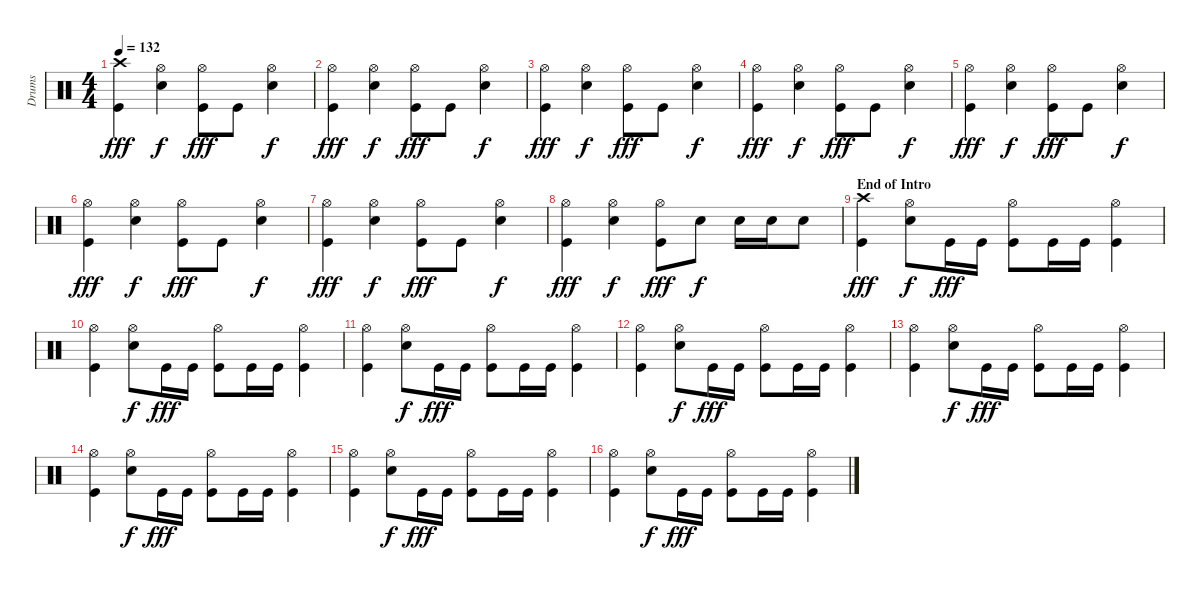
\track ("Drums" "Drums") {instrument percussion}
\staff {score}
\articulation defaults
\ts (4 4)
\tempo 132
\clef neutral
\ks c
("Crash high (hit)" "Kick (hit)").4{dy fff} ("Hi-Hat (open)" "Snare (hit) 2").4{dy f} ("Hi-Hat (open)" "Kick (hit)").8{dy fff} "Kick (hit)".8 ("Hi-Hat (open)" "Snare (hit) 2").4{dy f} |
("Hi-Hat (open)" "Kick (hit)").4{dy fff} ("Hi-Hat (open)" "Snare (hit) 2").4{dy f} ("Hi-Hat (open)" "Kick (hit)").8{dy fff} "Kick (hit)".8 ("Hi-Hat (open)" "Snare (hit) 2").4{dy f} |
("Hi-Hat (open)" "Kick (hit)").4{dy fff} ("Hi-Hat (open)" "Snare (hit) 2").4{dy f} ("Hi-Hat (open)" "Kick (hit)").8{dy fff} "Kick (hit)".8 ("Hi-Hat (open)" "Snare (hit) 2").4{dy f} |
("Hi-Hat (open)" "Kick (hit)").4{dy fff} ("Hi-Hat (open)" "Snare (hit) 2").4{dy f} ("Hi-Hat (open)" "Kick (hit)").8{dy fff} "Kick (hit)".8 ("Hi-Hat (open)" "Snare (hit) 2").4{dy f} |
("Hi-Hat (open)" "Kick (hit)").4{dy fff} ("Hi-Hat (open)" "Snare (hit) 2").4{dy f} ("Hi-Hat (open)" "Kick (hit)").8{dy fff} "Kick (hit)".8 ("Hi-Hat (open)" "Snare (hit) 2").4{dy f} |
("Hi-Hat (open)" "Kick (hit)").4{dy fff} ("Hi-Hat (open)" "Snare (hit) 2").4{dy f} ("Hi-Hat (open)" "Kick (hit)").8{dy fff} "Kick (hit)".8 ("Hi-Hat (open)" "Snare (hit) 2").4{dy f} |
("Hi-Hat (open)" "Kick (hit)").4{dy fff} ("Hi-Hat (open)" "Snare (hit) 2").4{dy f} ("Hi-Hat (open)" "Kick (hit)").8{dy fff} "Kick (hit)".8 ("Hi-Hat (open)" "Snare (hit) 2").4{dy f} |
("Hi-Hat (open)" "Kick (hit)").4{dy fff} ("Hi-Hat (open)" "Snare (hit) 2").4{dy f} ("Hi-Hat (open)" "Kick (hit)").8{dy fff} "Snare (hit) 2".8{dy f} "Snare (hit) 2".16 "Snare (hit) 2".16 "Snare (hit) 2".8 |
\section ("" "End of Intro")
("Crash high (hit)" "Kick (hit)").4{dy fff} ("Hi-Hat (open)" "Snare (hit) 2").8{dy f} "Kick (hit)".16{dy fff} "Kick (hit)".16 ("Hi-Hat (open)" "Kick (hit)").8 "Kick (hit)".16 "Kick (hit)".16 ("Hi-Hat (open)" "Kick (hit)").4 |
("Hi-Hat (open)" "Kick (hit)").4 ("Hi-Hat (open)" "Snare (hit) 2").8{dy f} "Kick (hit)".16{dy fff} "Kick (hit)".16 ("Hi-Hat (open)" "Kick (hit)").8 "Kick (hit)".16 "Kick (hit)".16 ("Hi-Hat (open)" "Kick (hit)").4 |
("Hi-Hat (open)" "Kick (hit)").4 ("Hi-Hat (open)" "Snare (hit) 2").8{dy f} "Kick (hit)".16{dy fff} "Kick (hit)".16 ("Hi-Hat (open)" "Kick (hit)").8 "Kick (hit)".16 "Kick (hit)".16 ("Hi-Hat (open)" "Kick (hit)").4 |
("Hi-Hat (open)" "Kick (hit)").4 ("Hi-Hat (open)" "Snare (hit) 2").8{dy f} "Kick (hit)".16{dy fff} "Kick (hit)".16 ("Hi-Hat (open)" "Kick (hit)").8 "Kick (hit)".16 "Kick (hit)".16 ("Hi-Hat (open)" "Kick (hit)").4 |
("Hi-Hat (open)" "Kick (hit)").4 ("Hi-Hat (open)" "Snare (hit) 2").8{dy f} "Kick (hit)".16{dy fff} "Kick (hit)".16 ("Hi-Hat (open)" "Kick (hit)").8 "Kick (hit)".16 "Kick (hit)".16 ("Hi-Hat (open)" "Kick (hit)").4 |
("Hi-Hat (open)" "Kick (hit)").4 ("Hi-Hat (open)" "Snare (hit) 2").8{dy f} "Kick (hit)".16{dy fff} "Kick (hit)".16 ("Hi-Hat (open)" "Kick (hit)").8 "Kick (hit)".16 "Kick (hit)".16 ("Hi-Hat (open)" "Kick (hit)").4 |
("Hi-Hat (open)" "Kick (hit)").4 ("Hi-Hat (open)" "Snare (hit) 2").8{dy f} "Kick (hit)".16{dy fff} "Kick (hit)".16 ("Hi-Hat (open)" "Kick (hit)").8 "Kick (hit)".16 "Kick (hit)".16 ("Hi-Hat (open)" "Kick (hit)").4 |
("Hi-Hat (open)" "Kick (hit)").4 ("Hi-Hat (open)" "Snare (hit) 2").8{dy f} "Kick (hit)".16{dy fff} "Kick (hit)".16 ("Hi-Hat (open)" "Kick (hit)").8 "Kick (hit)".16 "Kick (hit)".16 ("Hi-Hat (open)" "Kick (hit)").4
